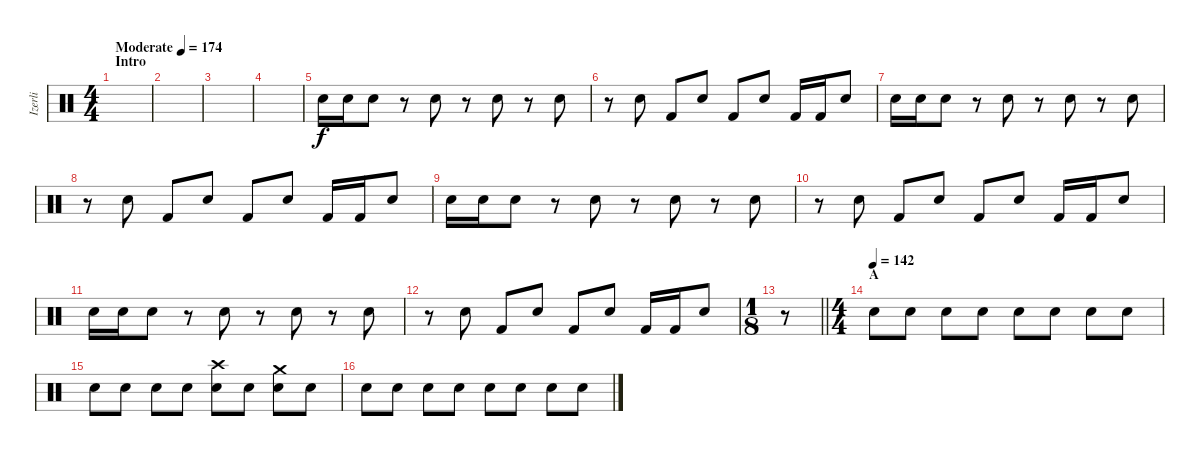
\track ("Izerli" "Izerli") {instrument percussion}
\staff {score}
\articulation defaults
\ts (4 4)
\section ("" "Intro")
\tempo (174 "Moderate")
\clef neutral
\ks c
|
|
|
|
"Electric Snare (hit)".16 "Electric Snare (hit)".16 "Electric Snare (hit)".8 r.8 "Electric Snare (hit)".8 r.8 "Electric Snare (hit)".8 r.8 "Electric Snare (hit)".8 |
r.8 "Electric Snare (hit)".8 "Kick (hit) 2".8 "Electric Snare (hit)".8 "Kick (hit) 2".8 "Electric Snare (hit)".8 "Kick (hit) 2".16 "Kick (hit) 2".16 "Electric Snare (hit)".8 |
"Electric Snare (hit)".16 "Electric Snare (hit)".16 "Electric Snare (hit)".8 r.8 "Electric Snare (hit)".8 r.8 "Electric Snare (hit)".8 r.8 "Electric Snare (hit)".8 |
r.8 "Electric Snare (hit)".8 "Kick (hit) 2".8 "Electric Snare (hit)".8 "Kick (hit) 2".8 "Electric Snare (hit)".8 "Kick (hit) 2".16 "Kick (hit) 2".16 "Electric Snare (hit)".8 |
"Electric Snare (hit)".16 "Electric Snare (hit)".16 "Electric Snare (hit)".8 r.8 "Electric Snare (hit)".8 r.8 "Electric Snare (hit)".8 r.8 "Electric Snare (hit)".8 |
r.8 "Electric Snare (hit)".8 "Kick (hit) 2".8 "Electric Snare (hit)".8 "Kick (hit) 2".8 "Electric Snare (hit)".8 "Kick (hit) 2".16 "Kick (hit) 2".16 "Electric Snare (hit)".8 |
"Electric Snare (hit)".16 "Electric Snare (hit)".16 "Electric Snare (hit)".8 r.8 "Electric Snare (hit)".8 r.8 "Electric Snare (hit)".8 r.8 "Electric Snare (hit)".8 |
r.8 "Electric Snare (hit)".8 "Kick (hit) 2".8 "Electric Snare (hit)".8 "Kick (hit) 2".8 "Electric Snare (hit)".8 "Kick (hit) 2".16 "Kick (hit) 2".16 "Electric Snare (hit)".8 |
\ts (1 8)
\barLineRight lightlight
r.8 |
\ts (4 4)
\section ("" "A")
\tempo (142)
"Electric Snare (hit)".8 "Electric Snare (hit)".8 "Electric Snare (hit)".8 "Electric Snare (hit)".8 "Electric Snare (hit)".8 "Electric Snare (hit)".8 "Electric Snare (hit)".8 "Electric Snare (hit)".8 |
"Electric Snare (hit)".8 "Electric Snare (hit)".8 "Electric Snare (hit)".8 "Electric Snare (hit)".8 ("Crash high (hit)" "Electric Snare (hit)").8 "Electric Snare (hit)".8 ("Crash medium (hit)" "Electric Snare (hit)").8 "Electric Snare (hit)".8 |
"Electric Snare (hit)".8 "Electric Snare (hit)".8 "Electric Snare (hit)".8 "Electric Snare (hit)".8 "Electric Snare (hit)".8 "Electric Snare (hit)".8 "Electric Snare (hit)".8 "Electric Snare (hit)".8
